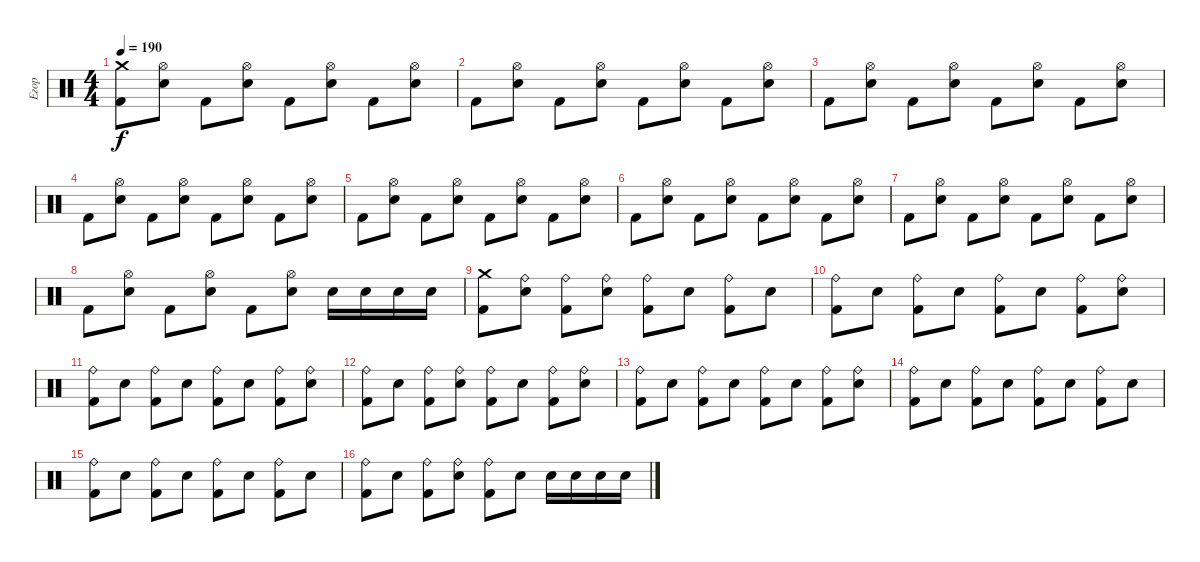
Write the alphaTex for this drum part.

\track ("Егор" "Егор") {instrument percussion}
\staff {score}
\articulation defaults
\ts (4 4)
\tempo 190
\clef neutral
\ks c
("Crash medium (hit)" "Kick (hit) 2").8{dy f} ("Hi-Hat (open)" "Snare (hit) 2").8 "Kick (hit) 2".8 ("Hi-Hat (open)" "Snare (hit) 2").8 "Kick (hit) 2".8 ("Hi-Hat (open)" "Snare (hit) 2").8 "Kick (hit) 2".8 ("Hi-Hat (open)" "Snare (hit) 2").8 |
"Kick (hit) 2".8 ("Hi-Hat (open)" "Snare (hit) 2").8 "Kick (hit) 2".8 ("Hi-Hat (open)" "Snare (hit) 2").8 "Kick (hit) 2".8 ("Hi-Hat (open)" "Snare (hit) 2").8 "Kick (hit) 2".8 ("Hi-Hat (open)" "Snare (hit) 2").8 |
"Kick (hit) 2".8 ("Hi-Hat (open)" "Snare (hit) 2").8 "Kick (hit) 2".8 ("Hi-Hat (open)" "Snare (hit) 2").8 "Kick (hit) 2".8 ("Hi-Hat (open)" "Snare (hit) 2").8 "Kick (hit) 2".8 ("Hi-Hat (open)" "Snare (hit) 2").8 |
"Kick (hit) 2".8 ("Hi-Hat (open)" "Snare (hit) 2").8 "Kick (hit) 2".8 ("Hi-Hat (open)" "Snare (hit) 2").8 "Kick (hit) 2".8 ("Hi-Hat (open)" "Snare (hit) 2").8 "Kick (hit) 2".8 ("Hi-Hat (open)" "Snare (hit) 2").8 |
"Kick (hit) 2".8 ("Hi-Hat (open)" "Snare (hit) 2").8 "Kick (hit) 2".8 ("Hi-Hat (open)" "Snare (hit) 2").8 "Kick (hit) 2".8 ("Hi-Hat (open)" "Snare (hit) 2").8 "Kick (hit) 2".8 ("Hi-Hat (open)" "Snare (hit) 2").8 |
"Kick (hit) 2".8 ("Hi-Hat (open)" "Snare (hit) 2").8 "Kick (hit) 2".8 ("Hi-Hat (open)" "Snare (hit) 2").8 "Kick (hit) 2".8 ("Hi-Hat (open)" "Snare (hit) 2").8 "Kick (hit) 2".8 ("Hi-Hat (open)" "Snare (hit) 2").8 |
"Kick (hit) 2".8 ("Hi-Hat (open)" "Snare (hit) 2").8 "Kick (hit) 2".8 ("Hi-Hat (open)" "Snare (hit) 2").8 "Kick (hit) 2".8 ("Hi-Hat (open)" "Snare (hit) 2").8 "Kick (hit) 2".8 ("Hi-Hat (open)" "Snare (hit) 2").8 |
"Kick (hit) 2".8 ("Hi-Hat (open)" "Snare (hit) 2").8 "Kick (hit) 2".8 ("Hi-Hat (open)" "Snare (hit) 2").8 "Kick (hit) 2".8 ("Hi-Hat (open)" "Snare (hit) 2").8 "Snare (hit) 2".16 "Snare (hit) 2".16 "Snare (hit) 2".16 "Snare (hit) 2".16 |
("Kick (hit) 2" "Crash medium (hit)").8 ("Snare (hit) 2" "Ride (bell)").8 ("Kick (hit) 2" "Ride (bell)").8 ("Snare (hit) 2" "Ride (bell)").8 ("Kick (hit) 2" "Ride (bell)").8 "Snare (hit) 2".8 ("Kick (hit) 2" "Ride (bell)").8 "Snare (hit) 2".8 |
("Kick (hit) 2" "Ride (bell)").8 "Snare (hit) 2".8 ("Kick (hit) 2" "Ride (bell)").8 "Snare (hit) 2".8 ("Kick (hit) 2" "Ride (bell)").8 "Snare (hit) 2".8 ("Kick (hit) 2" "Ride (bell)").8 ("Snare (hit) 2" "Ride (bell)").8 |
("Kick (hit) 2" "Ride (bell)").8 "Snare (hit) 2".8 ("Kick (hit) 2" "Ride (bell)").8 "Snare (hit) 2".8 ("Kick (hit) 2" "Ride (bell)").8 "Snare (hit) 2".8 ("Kick (hit) 2" "Ride (bell)").8 ("Snare (hit) 2" "Ride (bell)").8 |
("Kick (hit) 2" "Ride (bell)").8 "Snare (hit) 2".8 ("Kick (hit) 2" "Ride (bell)").8 ("Snare (hit) 2" "Ride (bell)").8 ("Kick (hit) 2" "Ride (bell)").8 "Snare (hit) 2".8 ("Kick (hit) 2" "Ride (bell)").8 ("Snare (hit) 2" "Ride (bell)").8 |
("Kick (hit) 2" "Ride (bell)").8 "Snare (hit) 2".8 ("Kick (hit) 2" "Ride (bell)").8 "Snare (hit) 2".8 ("Kick (hit) 2" "Ride (bell)").8 "Snare (hit) 2".8 ("Kick (hit) 2" "Ride (bell)").8 ("Snare (hit) 2" "Ride (bell)").8 |
("Kick (hit) 2" "Ride (bell)").8 "Snare (hit) 2".8 ("Kick (hit) 2" "Ride (bell)").8 "Snare (hit) 2".8 ("Kick (hit) 2" "Ride (bell)").8 "Snare (hit) 2".8 ("Kick (hit) 2" "Ride (bell)").8 "Snare (hit) 2".8 |
("Kick (hit) 2" "Ride (bell)").8 "Snare (hit) 2".8 ("Kick (hit) 2" "Ride (bell)").8 "Snare (hit) 2".8 ("Kick (hit) 2" "Ride (bell)").8 "Snare (hit) 2".8 ("Kick (hit) 2" "Ride (bell)").8 "Snare (hit) 2".8 |
("Kick (hit) 2" "Ride (bell)").8 "Snare (hit) 2".8 ("Kick (hit) 2" "Ride (bell)").8 ("Snare (hit) 2" "Ride (bell)").8 ("Kick (hit) 2" "Ride (bell)").8 "Snare (hit) 2".8 "Snare (hit) 2".16 "Snare (hit) 2".16 "Snare (hit) 2".16 "Snare (hit) 2".16
